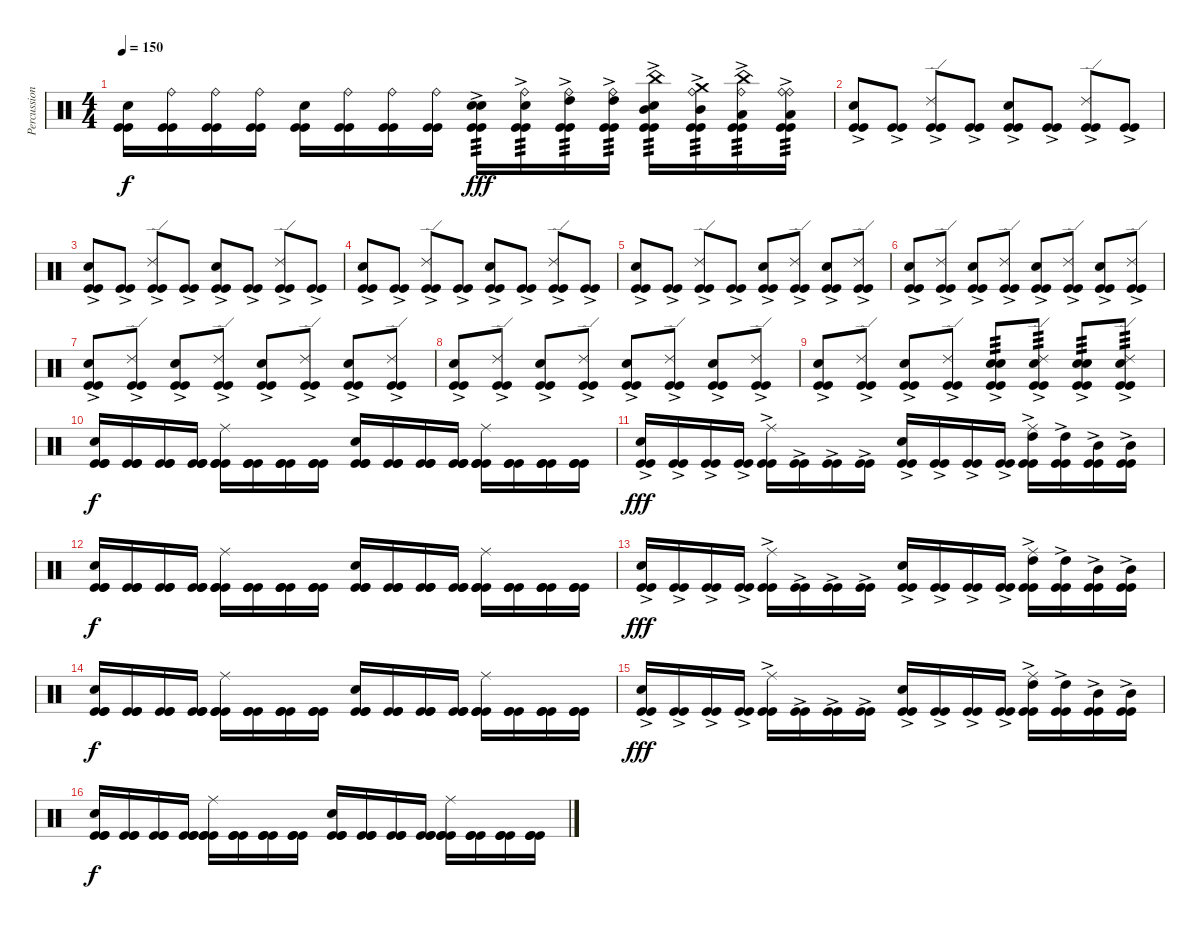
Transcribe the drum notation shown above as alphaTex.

\track ("Percussions" "Percussion") {instrument percussion}
\staff {score}
\articulation defaults
\ts (4 4)
\tempo 150
\clef neutral
\ks c
("Snare (hit) 2" "Kick (hit)" "Kick (hit)").16{dy f} ("Ride (bell)" "Kick (hit)" "Kick (hit)").16 ("Ride (bell)" "Kick (hit)" "Kick (hit)").16 ("Ride (bell)" "Kick (hit)" "Kick (hit)").16 ("Snare (hit) 2" "Kick (hit)" "Kick (hit)").16 ("Ride (bell)" "Kick (hit)" "Kick (hit)").16 ("Ride (bell)" "Kick (hit)" "Kick (hit)").16 ("Ride (bell)" "Kick (hit)" "Kick (hit)").16 ("Snare (hit) 2"{ac} "Snare (hit) 2" "Kick (hit)" "Kick (hit)").16{tp 3 dy fff} ("Snare (hit) 2"{ac} "Ride (bell)" "Kick (hit)" "Kick (hit)").16{tp 3} ("High Tom (hit)"{ac} "Ride (bell)" "Kick (hit)" "Kick (hit)").16{tp 3} ("High Tom (hit)"{ac} "Ride (bell)" "Kick (hit)" "Kick (hit)").16{tp 3} ("Mid Tom (hit)"{ac} "China (hit)" "Snare (hit) 2" "Kick (hit)" "Kick (hit)").16{tp 3} ("Mid Tom (hit)"{ac} "Crash medium (hit)" "Ride (bell)" "Kick (hit)" "Kick (hit)").16{tp 3} ("Low Tom (hit)"{ac} "China (hit)" "Ride (bell)" "Kick (hit)" "Kick (hit)").16{tp 3} ("Low Tom (hit)"{ac} "Ride (bell)" "Ride (bell)" "Kick (hit)" "Kick (hit)").16{tp 3} |
("Snare (hit) 2" "Kick (hit)"{ac} "Kick (hit)"{ac}).8 ("Kick (hit)"{ac} "Kick (hit)"{ac}).8 ("Ride (edge) 2" "Kick (hit)"{ac} "Kick (hit)"{ac}).8 ("Kick (hit)"{ac} "Kick (hit)"{ac}).8 ("Snare (hit) 2" "Kick (hit)"{ac} "Kick (hit)"{ac}).8 ("Kick (hit)"{ac} "Kick (hit)"{ac}).8 ("Ride (edge) 2" "Kick (hit)"{ac} "Kick (hit)"{ac}).8 ("Kick (hit)"{ac} "Kick (hit)"{ac}).8 |
("Snare (hit) 2" "Kick (hit)"{ac} "Kick (hit)"{ac}).8 ("Kick (hit)"{ac} "Kick (hit)"{ac}).8 ("Ride (edge) 2" "Kick (hit)"{ac} "Kick (hit)"{ac}).8 ("Kick (hit)"{ac} "Kick (hit)"{ac}).8 ("Snare (hit) 2" "Kick (hit)"{ac} "Kick (hit)"{ac}).8 ("Kick (hit)"{ac} "Kick (hit)"{ac}).8 ("Ride (edge) 2" "Kick (hit)"{ac} "Kick (hit)"{ac}).8 ("Kick (hit)"{ac} "Kick (hit)"{ac}).8 |
("Snare (hit) 2" "Kick (hit)"{ac} "Kick (hit)"{ac}).8 ("Kick (hit)"{ac} "Kick (hit)"{ac}).8 ("Ride (edge) 2" "Kick (hit)"{ac} "Kick (hit)"{ac}).8 ("Kick (hit)"{ac} "Kick (hit)"{ac}).8 ("Snare (hit) 2" "Kick (hit)"{ac} "Kick (hit)"{ac}).8 ("Kick (hit)"{ac} "Kick (hit)"{ac}).8 ("Ride (edge) 2" "Kick (hit)"{ac} "Kick (hit)"{ac}).8 ("Kick (hit)"{ac} "Kick (hit)"{ac}).8 |
("Snare (hit) 2" "Kick (hit)"{ac} "Kick (hit)"{ac}).8 ("Kick (hit)"{ac} "Kick (hit)"{ac}).8 ("Ride (edge) 2" "Kick (hit)"{ac} "Kick (hit)"{ac}).8 ("Kick (hit)"{ac} "Kick (hit)"{ac}).8 ("Snare (hit) 2" "Kick (hit)"{ac} "Kick (hit)"{ac}).8 ("Ride (edge) 2" "Kick (hit)"{ac} "Kick (hit)"{ac}).8 ("Snare (hit) 2" "Kick (hit)"{ac} "Kick (hit)"{ac}).8 ("Ride (edge) 2" "Kick (hit)"{ac} "Kick (hit)"{ac}).8 |
("Snare (hit) 2" "Kick (hit)"{ac} "Kick (hit)"{ac}).8 ("Ride (edge) 2" "Kick (hit)"{ac} "Kick (hit)"{ac}).8 ("Snare (hit) 2" "Kick (hit)"{ac} "Kick (hit)"{ac}).8 ("Ride (edge) 2" "Kick (hit)"{ac} "Kick (hit)"{ac}).8 ("Snare (hit) 2" "Kick (hit)"{ac} "Kick (hit)"{ac}).8 ("Ride (edge) 2" "Kick (hit)"{ac} "Kick (hit)"{ac}).8 ("Snare (hit) 2" "Kick (hit)"{ac} "Kick (hit)"{ac}).8 ("Ride (edge) 2" "Kick (hit)"{ac} "Kick (hit)"{ac}).8 |
("Snare (hit) 2" "Kick (hit)"{ac} "Kick (hit)"{ac}).8 ("Ride (edge) 2" "Kick (hit)"{ac} "Kick (hit)"{ac}).8 ("Snare (hit) 2" "Kick (hit)"{ac} "Kick (hit)"{ac}).8 ("Ride (edge) 2" "Kick (hit)"{ac} "Kick (hit)"{ac}).8 ("Snare (hit) 2" "Kick (hit)"{ac} "Kick (hit)"{ac}).8 ("Ride (edge) 2" "Kick (hit)"{ac} "Kick (hit)"{ac}).8 ("Snare (hit) 2" "Kick (hit)"{ac} "Kick (hit)"{ac}).8 ("Ride (edge) 2" "Kick (hit)"{ac} "Kick (hit)"{ac}).8 |
("Snare (hit) 2" "Kick (hit)"{ac} "Kick (hit)"{ac}).8 ("Ride (edge) 2" "Kick (hit)"{ac} "Kick (hit)"{ac}).8 ("Snare (hit) 2" "Kick (hit)"{ac} "Kick (hit)"{ac}).8 ("Ride (edge) 2" "Kick (hit)"{ac} "Kick (hit)"{ac}).8 ("Snare (hit) 2" "Kick (hit)"{ac} "Kick (hit)"{ac}).8 ("Ride (edge) 2" "Kick (hit)"{ac} "Kick (hit)"{ac}).8 ("Snare (hit) 2" "Kick (hit)"{ac} "Kick (hit)"{ac}).8 ("Ride (edge) 2" "Kick (hit)"{ac} "Kick (hit)"{ac}).8 |
("Snare (hit) 2" "Kick (hit)"{ac} "Kick (hit)"{ac}).8 ("Ride (edge) 2" "Kick (hit)"{ac} "Kick (hit)"{ac}).8 ("Snare (hit) 2" "Kick (hit)"{ac} "Kick (hit)"{ac}).8 ("Ride (edge) 2" "Kick (hit)"{ac} "Kick (hit)"{ac}).8 ("Snare (hit) 2" "Snare (hit) 2" "Kick (hit)"{ac} "Kick (hit)"{ac}).8{tp 3} ("Snare (hit) 2" "Ride (edge) 2" "Kick (hit)"{ac} "Kick (hit)"{ac}).8{tp 3} ("Snare (hit) 2" "Snare (hit) 2" "Kick (hit)"{ac} "Kick (hit)"{ac}).8{tp 3} ("Snare (hit) 2" "Ride (edge) 2" "Kick (hit)"{ac} "Kick (hit)"{ac}).8{tp 3} |
("Kick (hit)" "Kick (hit)" "Electric Snare (hit)" "Kick (hit)").16{dy f} ("Kick (hit)" "Kick (hit)" "Kick (hit)").16 ("Kick (hit)" "Kick (hit)" "Kick (hit)").16 ("Kick (hit)" "Kick (hit)" "Kick (hit)").16 ("Kick (hit)" "Kick (hit)" "Ride (middle)" "Kick (hit)").16 ("Kick (hit)" "Kick (hit)" "Kick (hit)").16 ("Kick (hit)" "Kick (hit)" "Kick (hit)").16 ("Kick (hit)" "Kick (hit)" "Kick (hit)").16 ("Kick (hit)" "Kick (hit)" "Electric Snare (hit)" "Kick (hit)").16 ("Kick (hit)" "Kick (hit)" "Kick (hit)").16 ("Kick (hit)" "Kick (hit)" "Kick (hit)").16 ("Kick (hit)" "Kick (hit)" "Kick (hit)").16 ("Kick (hit)" "Kick (hit)" "Ride (middle)" "Kick (hit)").16 ("Kick (hit)" "Kick (hit)" "Kick (hit)").16 ("Kick (hit)" "Kick (hit)" "Kick (hit)").16 ("Kick (hit)" "Kick (hit)" "Kick (hit)").16 |
("Kick (hit)"{ac} "Electric Snare (hit)" "Kick (hit)"{ac}).16{dy fff} ("Kick (hit)"{ac} "Kick (hit)"{ac}).16 ("Kick (hit)"{ac} "Kick (hit)"{ac}).16 ("Kick (hit)"{ac} "Kick (hit)"{ac}).16 ("Kick (hit)"{ac} "Ride (middle)" "Kick (hit)"{ac}).16 ("Kick (hit)"{ac} "Kick (hit)"{ac}).16 ("Kick (hit)"{ac} "Kick (hit)"{ac}).16 ("Kick (hit)"{ac} "Kick (hit)"{ac}).16 ("Kick (hit)"{ac} "Electric Snare (hit)" "Kick (hit)"{ac}).16 ("Kick (hit)"{ac} "Kick (hit)"{ac}).16 ("Kick (hit)"{ac} "Kick (hit)"{ac}).16 ("Kick (hit)"{ac} "Kick (hit)"{ac}).16 ("Kick (hit)"{ac} "High Tom (hit)" "Ride (middle)" "Kick (hit)"{ac}).16 ("Kick (hit)"{ac} "High Tom (hit)" "Kick (hit)"{ac}).16 ("Kick (hit)"{ac} "Mid Tom (hit)" "Kick (hit)"{ac}).16 ("Kick (hit)"{ac} "Mid Tom (hit)" "Kick (hit)"{ac}).16 |
("Kick (hit)" "Kick (hit)" "Electric Snare (hit)" "Kick (hit)").16{dy f} ("Kick (hit)" "Kick (hit)" "Kick (hit)").16 ("Kick (hit)" "Kick (hit)" "Kick (hit)").16 ("Kick (hit)" "Kick (hit)" "Kick (hit)").16 ("Kick (hit)" "Kick (hit)" "Ride (middle)" "Kick (hit)").16 ("Kick (hit)" "Kick (hit)" "Kick (hit)").16 ("Kick (hit)" "Kick (hit)" "Kick (hit)").16 ("Kick (hit)" "Kick (hit)" "Kick (hit)").16 ("Kick (hit)" "Kick (hit)" "Electric Snare (hit)" "Kick (hit)").16 ("Kick (hit)" "Kick (hit)" "Kick (hit)").16 ("Kick (hit)" "Kick (hit)" "Kick (hit)").16 ("Kick (hit)" "Kick (hit)" "Kick (hit)").16 ("Kick (hit)" "Kick (hit)" "Ride (middle)" "Kick (hit)").16 ("Kick (hit)" "Kick (hit)" "Kick (hit)").16 ("Kick (hit)" "Kick (hit)" "Kick (hit)").16 ("Kick (hit)" "Kick (hit)" "Kick (hit)").16 |
("Kick (hit)"{ac} "Electric Snare (hit)" "Kick (hit)"{ac}).16{dy fff} ("Kick (hit)"{ac} "Kick (hit)"{ac}).16 ("Kick (hit)"{ac} "Kick (hit)"{ac}).16 ("Kick (hit)"{ac} "Kick (hit)"{ac}).16 ("Kick (hit)"{ac} "Ride (middle)" "Kick (hit)"{ac}).16 ("Kick (hit)"{ac} "Kick (hit)"{ac}).16 ("Kick (hit)"{ac} "Kick (hit)"{ac}).16 ("Kick (hit)"{ac} "Kick (hit)"{ac}).16 ("Kick (hit)"{ac} "Electric Snare (hit)" "Kick (hit)"{ac}).16 ("Kick (hit)"{ac} "Kick (hit)"{ac}).16 ("Kick (hit)"{ac} "Kick (hit)"{ac}).16 ("Kick (hit)"{ac} "Kick (hit)"{ac}).16 ("Kick (hit)"{ac} "High Tom (hit)" "Ride (middle)" "Kick (hit)"{ac}).16 ("Kick (hit)"{ac} "High Tom (hit)" "Kick (hit)"{ac}).16 ("Kick (hit)"{ac} "Mid Tom (hit)" "Kick (hit)"{ac}).16 ("Kick (hit)"{ac} "Mid Tom (hit)" "Kick (hit)"{ac}).16 |
("Kick (hit)" "Kick (hit)" "Electric Snare (hit)" "Kick (hit)").16{dy f} ("Kick (hit)" "Kick (hit)" "Kick (hit)").16 ("Kick (hit)" "Kick (hit)" "Kick (hit)").16 ("Kick (hit)" "Kick (hit)" "Kick (hit)").16 ("Kick (hit)" "Kick (hit)" "Ride (middle)" "Kick (hit)").16 ("Kick (hit)" "Kick (hit)" "Kick (hit)").16 ("Kick (hit)" "Kick (hit)" "Kick (hit)").16 ("Kick (hit)" "Kick (hit)" "Kick (hit)").16 ("Kick (hit)" "Kick (hit)" "Electric Snare (hit)" "Kick (hit)").16 ("Kick (hit)" "Kick (hit)" "Kick (hit)").16 ("Kick (hit)" "Kick (hit)" "Kick (hit)").16 ("Kick (hit)" "Kick (hit)" "Kick (hit)").16 ("Kick (hit)" "Kick (hit)" "Ride (middle)" "Kick (hit)").16 ("Kick (hit)" "Kick (hit)" "Kick (hit)").16 ("Kick (hit)" "Kick (hit)" "Kick (hit)").16 ("Kick (hit)" "Kick (hit)" "Kick (hit)").16 |
("Kick (hit)"{ac} "Electric Snare (hit)" "Kick (hit)"{ac}).16{dy fff} ("Kick (hit)"{ac} "Kick (hit)"{ac}).16 ("Kick (hit)"{ac} "Kick (hit)"{ac}).16 ("Kick (hit)"{ac} "Kick (hit)"{ac}).16 ("Kick (hit)"{ac} "Ride (middle)" "Kick (hit)"{ac}).16 ("Kick (hit)"{ac} "Kick (hit)"{ac}).16 ("Kick (hit)"{ac} "Kick (hit)"{ac}).16 ("Kick (hit)"{ac} "Kick (hit)"{ac}).16 ("Kick (hit)"{ac} "Electric Snare (hit)" "Kick (hit)"{ac}).16 ("Kick (hit)"{ac} "Kick (hit)"{ac}).16 ("Kick (hit)"{ac} "Kick (hit)"{ac}).16 ("Kick (hit)"{ac} "Kick (hit)"{ac}).16 ("Kick (hit)"{ac} "High Tom (hit)" "Ride (middle)" "Kick (hit)"{ac}).16 ("Kick (hit)"{ac} "High Tom (hit)" "Kick (hit)"{ac}).16 ("Kick (hit)"{ac} "Mid Tom (hit)" "Kick (hit)"{ac}).16 ("Kick (hit)"{ac} "Mid Tom (hit)" "Kick (hit)"{ac}).16 |
("Kick (hit)" "Kick (hit)" "Electric Snare (hit)" "Kick (hit)").16{dy f} ("Kick (hit)" "Kick (hit)" "Kick (hit)").16 ("Kick (hit)" "Kick (hit)" "Kick (hit)").16 ("Kick (hit)" "Kick (hit)" "Kick (hit)").16 ("Kick (hit)" "Kick (hit)" "Ride (middle)" "Kick (hit)").16 ("Kick (hit)" "Kick (hit)" "Kick (hit)").16 ("Kick (hit)" "Kick (hit)" "Kick (hit)").16 ("Kick (hit)" "Kick (hit)" "Kick (hit)").16 ("Kick (hit)" "Kick (hit)" "Electric Snare (hit)" "Kick (hit)").16 ("Kick (hit)" "Kick (hit)" "Kick (hit)").16 ("Kick (hit)" "Kick (hit)" "Kick (hit)").16 ("Kick (hit)" "Kick (hit)" "Kick (hit)").16 ("Kick (hit)" "Kick (hit)" "Ride (middle)" "Kick (hit)").16 ("Kick (hit)" "Kick (hit)" "Kick (hit)").16 ("Kick (hit)" "Kick (hit)" "Kick (hit)").16 ("Kick (hit)" "Kick (hit)" "Kick (hit)").16
